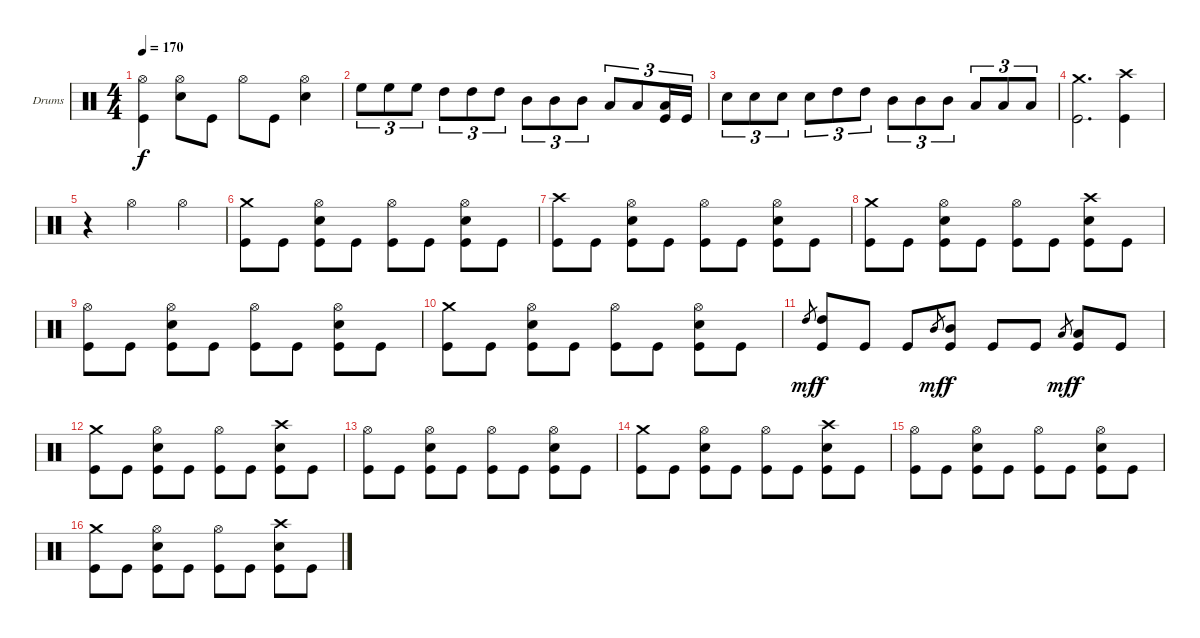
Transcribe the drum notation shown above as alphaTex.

\bracketExtendMode groupsimilarinstruments
\firstSystemTrackNameOrientation horizontal
\otherSystemsTrackNameOrientation horizontal
\track ("Дмитрий Кривенков" "Drums") {instrument percussion}
\staff {score}
\articulation defaults
\ts (4 4)
\tempo 170
\clef neutral
\ks c
("Hi-Hat (open)" "Kick (hit)").4{dy f} ("Hi-Hat (open)" "Snare (hit) 2").8 "Kick (hit)".8 "Hi-Hat (open)".8 "Kick (hit)".8 ("Hi-Hat (open)" "Snare (hit) 2").4 |
"High Floor Tom (hit)".8{tu (3 2)} "High Floor Tom (hit)".8{tu (3 2)} "High Floor Tom (hit)".8{tu (3 2)} "High Tom (hit)".8{tu (3 2)} "High Tom (hit)".8{tu (3 2)} "High Tom (hit)".8{tu (3 2)} "Mid Tom (hit)".8{tu (3 2)} "Mid Tom (hit)".8{tu (3 2)} "Mid Tom (hit)".8{tu (3 2)} "Low Tom (hit)".8{tu (3 2)} "Low Tom (hit)".8{tu (3 2)} ("Low Tom (hit)" "Kick (hit)").16{tu (3 2)} "Kick (hit)".16{tu (3 2)} |
"Snare (hit) 2".8{tu (3 2)} "Snare (hit) 2".8{tu (3 2)} "Snare (hit) 2".8{tu (3 2)} "Snare (hit) 2".8{tu (3 2)} "High Tom (hit)".8{tu (3 2)} "High Tom (hit)".8{tu (3 2)} "Mid Tom (hit)".8{tu (3 2)} "Mid Tom (hit)".8{tu (3 2)} "Mid Tom (hit)".8{tu (3 2)} "Low Tom (hit)".8{tu (3 2)} "Low Tom (hit)".8{tu (3 2)} "Low Tom (hit)".8{tu (3 2)} |
("Crash medium (hit)" "Kick (hit)").2{d} ("Crash high (hit)" "Kick (hit)").4 |
r.4 "Hi-Hat (open)".2 "Hi-Hat (open)".4 |
("Crash medium (hit)" "Kick (hit)").8 "Kick (hit)".8 ("Hi-Hat (open)" "Snare (hit) 2" "Kick (hit)").8 "Kick (hit)".8 ("Hi-Hat (open)" "Kick (hit)").8 "Kick (hit)".8 ("Hi-Hat (open)" "Snare (hit) 2" "Kick (hit)").8 "Kick (hit)".8 |
("Crash high (hit)" "Kick (hit)").8 "Kick (hit)".8 ("Hi-Hat (open)" "Snare (hit) 2" "Kick (hit)").8 "Kick (hit)".8 ("Hi-Hat (open)" "Kick (hit)").8 "Kick (hit)".8 ("Hi-Hat (open)" "Snare (hit) 2" "Kick (hit)").8 "Kick (hit)".8 |
("Crash medium (hit)" "Kick (hit)").8 "Kick (hit)".8 ("Hi-Hat (open)" "Snare (hit) 2" "Kick (hit)").8 "Kick (hit)".8 ("Hi-Hat (open)" "Kick (hit)").8 "Kick (hit)".8 ("Crash high (hit)" "Snare (hit) 2" "Kick (hit)").8 "Kick (hit)".8 |
("Hi-Hat (open)" "Kick (hit)").8 "Kick (hit)".8 ("Hi-Hat (open)" "Snare (hit) 2" "Kick (hit)").8 "Kick (hit)".8 ("Hi-Hat (open)" "Kick (hit)").8 "Kick (hit)".8 ("Hi-Hat (open)" "Snare (hit) 2" "Kick (hit)").8 "Kick (hit)".8 |
("Crash medium (hit)" "Kick (hit)").8 "Kick (hit)".8 ("Hi-Hat (open)" "Snare (hit) 2" "Kick (hit)").8 "Kick (hit)".8 ("Hi-Hat (open)" "Kick (hit)").8 "Kick (hit)".8 ("Hi-Hat (open)" "Snare (hit) 2" "Kick (hit)").8 "Kick (hit)".8 |
"High Tom (hit)".8{gr dy mf} ("High Tom (hit)" "Kick (hit)").8{dy f} "Kick (hit)".8 "Kick (hit)".8 "Mid Tom (hit)".8{gr dy mf} ("Mid Tom (hit)" "Kick (hit)").8{dy f} "Kick (hit)".8 "Kick (hit)".8 "Low Tom (hit)".8{gr dy mf} ("Low Tom (hit)" "Kick (hit)").8{dy f} "Kick (hit)".8 |
("Crash medium (hit)" "Kick (hit)").8 "Kick (hit)".8 ("Hi-Hat (open)" "Snare (hit) 2" "Kick (hit)").8 "Kick (hit)".8 ("Hi-Hat (open)" "Kick (hit)").8 "Kick (hit)".8 ("Crash high (hit)" "Snare (hit) 2" "Kick (hit)").8 "Kick (hit)".8 |
("Hi-Hat (open)" "Kick (hit)").8 "Kick (hit)".8 ("Hi-Hat (open)" "Snare (hit) 2" "Kick (hit)").8 "Kick (hit)".8 ("Hi-Hat (open)" "Kick (hit)").8 "Kick (hit)".8 ("Hi-Hat (open)" "Snare (hit) 2" "Kick (hit)").8 "Kick (hit)".8 |
("Crash medium (hit)" "Kick (hit)").8 "Kick (hit)".8 ("Hi-Hat (open)" "Snare (hit) 2" "Kick (hit)").8 "Kick (hit)".8 ("Hi-Hat (open)" "Kick (hit)").8 "Kick (hit)".8 ("Crash high (hit)" "Snare (hit) 2" "Kick (hit)").8 "Kick (hit)".8 |
("Hi-Hat (open)" "Kick (hit)").8 "Kick (hit)".8 ("Hi-Hat (open)" "Snare (hit) 2" "Kick (hit)").8 "Kick (hit)".8 ("Hi-Hat (open)" "Kick (hit)").8 "Kick (hit)".8 ("Hi-Hat (open)" "Snare (hit) 2" "Kick (hit)").8 "Kick (hit)".8 |
("Crash medium (hit)" "Kick (hit)").8 "Kick (hit)".8 ("Hi-Hat (open)" "Snare (hit) 2" "Kick (hit)").8 "Kick (hit)".8 ("Hi-Hat (open)" "Kick (hit)").8 "Kick (hit)".8 ("Crash high (hit)" "Snare (hit) 2" "Kick (hit)").8 "Kick (hit)".8
